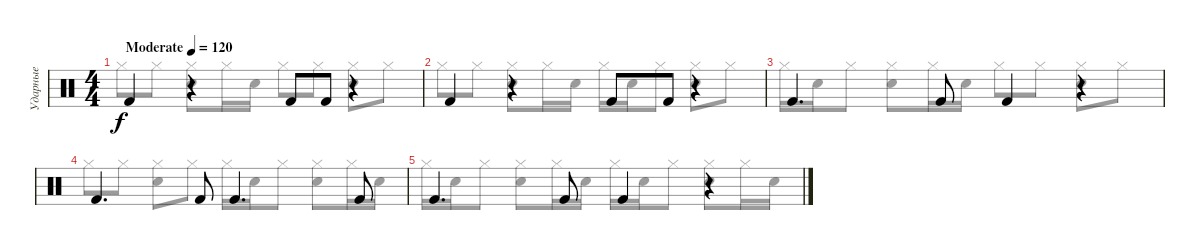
\track ("Ударные" "Ударные") {instrument percussion}
\staff {score}
\articulation defaults
\voice
\ts (4 4)
\tempo (120 "Moderate")
\clef neutral
\ks c "Kick (hit) 2".4{dy f}
r.4 "Kick (hit) 2".8 "Kick (hit) 2".8 r.4 |
"Kick (hit) 2".4 r.4 "Kick (hit) 2".8 "Kick (hit) 2".8 r.4 |
"Kick (hit) 2".4{d} "Kick (hit) 2".8 "Kick (hit) 2".4 r.4 |
"Kick (hit) 2".4{d} "Kick (hit) 2".8 "Kick (hit) 2".4{d} "Kick (hit) 2".8 |
"Kick (hit) 2".4{d} "Kick (hit) 2".8 "Kick (hit) 2".4 r.4
\voice
\clef neutral
\ottava regular
\simile none
\ks c "Hi-Hat (closed)".8{dy f} "Hi-Hat (closed)".8
("Hi-Hat (closed)" "Electric Snare (hit)").8 "Hi-Hat (closed)".16 "Electric Snare (hit)".16 "Hi-Hat (closed)".8 "Hi-Hat (closed)".8 ("Electric Snare (hit)" "Hi-Hat (closed)").8 "Hi-Hat (closed)".8 |
"Hi-Hat (closed)".8 "Hi-Hat (closed)".8 ("Hi-Hat (closed)" "Electric Snare (hit)").8 "Hi-Hat (closed)".16 "Electric Snare (hit)".16 "Hi-Hat (closed)".16 "Electric Snare (hit)".16 "Hi-Hat (closed)".8 ("Electric Snare (hit)" "Hi-Hat (closed)").8 "Hi-Hat (closed)".8 |
"Hi-Hat (closed)".16 "Electric Snare (hit)".16 "Hi-Hat (closed)".8 ("Hi-Hat (closed)" "Electric Snare (hit)").8 "Hi-Hat (closed)".16 "Electric Snare (hit)".16 "Hi-Hat (closed)".8 "Hi-Hat (closed)".8 ("Electric Snare (hit)" "Hi-Hat (closed)").8 "Hi-Hat (closed)".8 |
"Hi-Hat (closed)".8 "Hi-Hat (closed)".8 ("Hi-Hat (closed)" "Electric Snare (hit)").8 "Hi-Hat (closed)".8 "Hi-Hat (closed)".16 "Electric Snare (hit)".16 "Hi-Hat (closed)".8 ("Electric Snare (hit)" "Hi-Hat (closed)").8 "Hi-Hat (closed)".16 "Electric Snare (hit)".16 |
"Hi-Hat (closed)".16 "Electric Snare (hit)".16 "Hi-Hat (closed)".8 ("Hi-Hat (closed)" "Electric Snare (hit)").8 "Hi-Hat (closed)".16 "Electric Snare (hit)".16 "Hi-Hat (closed)".16 "Electric Snare (hit)".16 "Hi-Hat (closed)".8 ("Electric Snare (hit)" "Hi-Hat (closed)").8 "Hi-Hat (closed)".16 "Electric Snare (hit)".16
